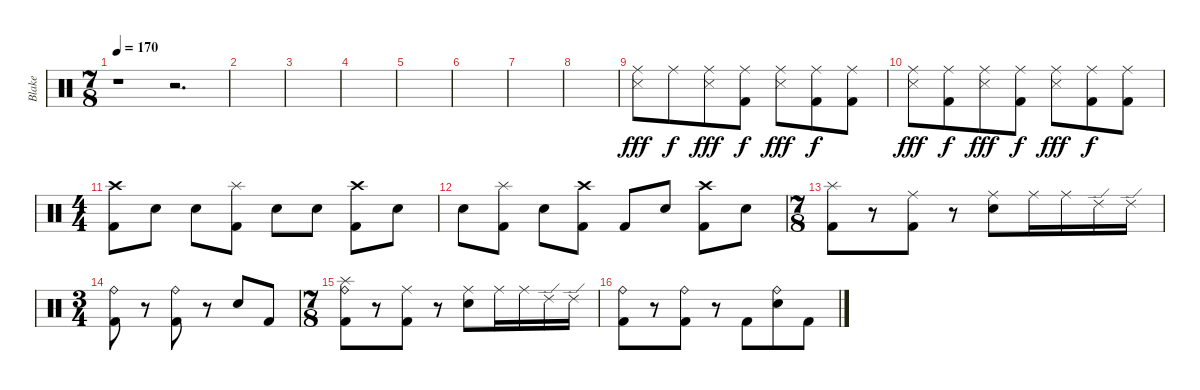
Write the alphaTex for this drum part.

\track ("Blake" "Blake") {instrument percussion}
\staff {score}
\articulation defaults
\ts (7 8)
\tempo 170
\clef neutral
\ks c
r.1{dy fff} r.2{d} |
|
|
|
|
|
|
|
("Ride (middle)" "Snare (side stick) 3").8 "Ride (middle)".8{dy f} ("Ride (middle)" "Snare (side stick) 3").8{dy fff} ("Ride (middle)" "Kick (hit) 2").8{dy f} ("Ride (middle)" "Snare (side stick) 3").8{dy fff} ("Ride (middle)" "Kick (hit) 2").8{dy f} ("Ride (middle)" "Kick (hit) 2").8 |
("Ride (middle)" "Snare (side stick) 3").8{dy fff} ("Ride (middle)" "Kick (hit) 2").8{dy f} ("Ride (middle)" "Snare (side stick) 3").8{dy fff} ("Ride (middle)" "Kick (hit) 2").8{dy f} ("Ride (middle)" "Snare (side stick) 3").8{dy fff} ("Ride (middle)" "Kick (hit) 2").8{dy f} ("Ride (middle)" "Kick (hit) 2").8 |
\ts (4 4)
("Crash high (hit)" "Kick (hit) 2").8 "Snare (hit) 2".8 "Snare (hit) 2".8 ("Splash (hit)" "Kick (hit) 2").8 "Snare (hit) 2".8 "Snare (hit) 2".8 ("Crash high (hit)" "Kick (hit) 2").8 "Snare (hit) 2".8 |
"Snare (hit) 2".8 ("Splash (hit)" "Kick (hit) 2").8 "Snare (hit) 2".8 ("Crash high (hit)" "Kick (hit) 2").8 "Kick (hit) 2".8 "Snare (hit) 2".8 ("Crash high (hit)" "Kick (hit) 2").8 "Snare (hit) 2".8 |
\ts (7 8)
("Splash (hit)" "Kick (hit) 2").8 r.8 ("Ride (middle)" "Kick (hit) 2").8 r.8 ("Ride (middle)" "Snare (hit) 2").8 "Ride (middle)".16 "Ride (middle)".16 "Ride (edge) 2".16 "Ride (edge) 2".16 |
\ts (3 4)
("Ride (bell)" "Kick (hit) 2").8 r.8 ("Ride (bell)" "Kick (hit) 2").8 r.8 "Snare (hit) 2".8 "Kick (hit) 2".8 |
\ts (7 8)
("Splash (hit)" "Ride (bell)" "Kick (hit) 2").8 r.8 ("Ride (middle)" "Kick (hit) 2").8 r.8 ("Ride (middle)" "Snare (hit) 2").8 "Ride (middle)".16 "Ride (middle)".16 "Ride (edge) 2".16 "Ride (edge) 2".16 |
("Ride (bell)" "Kick (hit) 2").8 r.8 ("Ride (bell)" "Kick (hit) 2").8 r.8 "Kick (hit) 2".8 ("Ride (bell)" "Snare (hit) 2").8 "Kick (hit) 2".8
